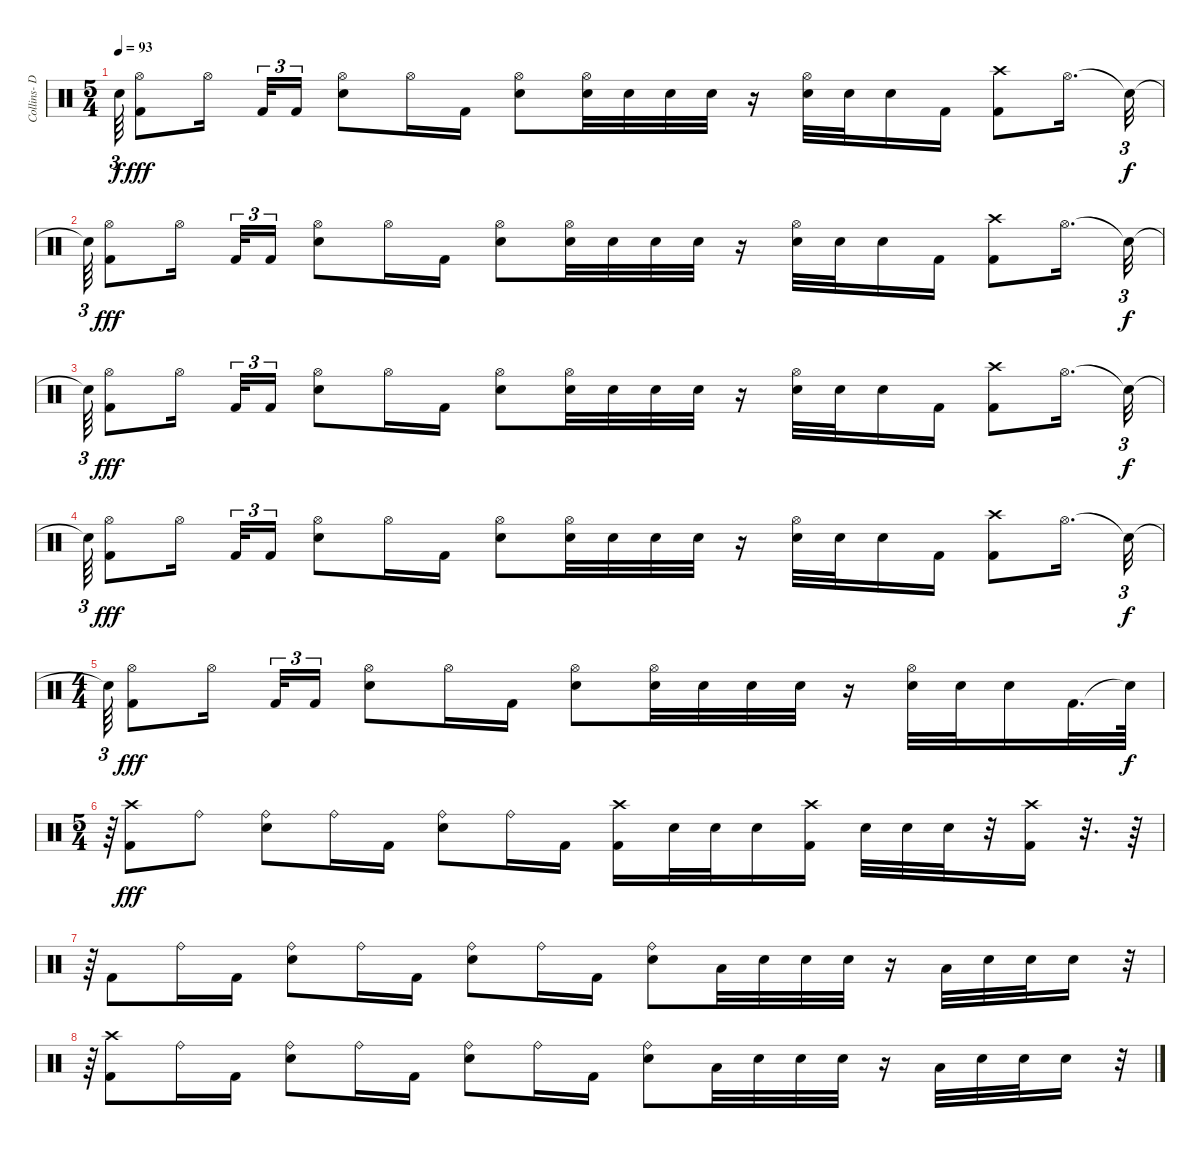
\track ("Collins- Drums" "Collins- D") {instrument percussion}
\staff {score}
\articulation defaults
\ts (5 4)
\tempo 93
\clef neutral
\ks c "Snare (hit)"{t}.64{tu (3 2) dy f}
("Hi-Hat (open)" "Kick (hit) 2").8{dy fff} "Hi-Hat (open)".16{beam splitsecondary} "Kick (hit) 2".32{tu (3 2)} "Kick (hit) 2".16{tu (3 2)} ("Electric Snare (hit)" "Hi-Hat (open)").8 "Hi-Hat (open)".16 "Kick (hit) 2".16 ("Electric Snare (hit)" "Hi-Hat (open)").8 ("Hi-Hat (open)" "Electric Snare (hit)").32 "Electric Snare (hit)".32 "Electric Snare (hit)".32 "Electric Snare (hit)".32 r.16 ("Hi-Hat (open)" "Electric Snare (hit)").32 "Electric Snare (hit)".32 "Electric Snare (hit)".16 "Kick (hit) 2".16 ("Kick (hit) 2" "Crash high (hit)").8 "Hi-Hat (open)".16{d} "Snare (hit)"{t}.32{tu (3 2) dy f} |
"Snare (hit)"{t}.64{tu (3 2)} ("Hi-Hat (open)" "Kick (hit) 2").8{dy fff} "Hi-Hat (open)".16{beam splitsecondary} "Kick (hit) 2".32{tu (3 2)} "Kick (hit) 2".16{tu (3 2)} ("Electric Snare (hit)" "Hi-Hat (open)").8 "Hi-Hat (open)".16 "Kick (hit) 2".16 ("Electric Snare (hit)" "Hi-Hat (open)").8 ("Hi-Hat (open)" "Electric Snare (hit)").32 "Electric Snare (hit)".32 "Electric Snare (hit)".32 "Electric Snare (hit)".32 r.16 ("Hi-Hat (open)" "Electric Snare (hit)").32 "Electric Snare (hit)".32 "Electric Snare (hit)".16 "Kick (hit) 2".16 ("Kick (hit) 2" "Crash high (hit)").8 "Hi-Hat (open)".16{d} "Snare (hit)"{t}.32{tu (3 2) dy f} |
"Snare (hit)"{t}.64{tu (3 2)} ("Hi-Hat (open)" "Kick (hit) 2").8{dy fff} "Hi-Hat (open)".16{beam splitsecondary} "Kick (hit) 2".32{tu (3 2)} "Kick (hit) 2".16{tu (3 2)} ("Electric Snare (hit)" "Hi-Hat (open)").8 "Hi-Hat (open)".16 "Kick (hit) 2".16 ("Electric Snare (hit)" "Hi-Hat (open)").8 ("Hi-Hat (open)" "Electric Snare (hit)").32 "Electric Snare (hit)".32 "Electric Snare (hit)".32 "Electric Snare (hit)".32 r.16 ("Hi-Hat (open)" "Electric Snare (hit)").32 "Electric Snare (hit)".32 "Electric Snare (hit)".16 "Kick (hit) 2".16 ("Kick (hit) 2" "Crash high (hit)").8 "Hi-Hat (open)".16{d} "Snare (hit)"{t}.32{tu (3 2) dy f} |
"Snare (hit)"{t}.64{tu (3 2)} ("Hi-Hat (open)" "Kick (hit) 2").8{dy fff} "Hi-Hat (open)".16{beam splitsecondary} "Kick (hit) 2".32{tu (3 2)} "Kick (hit) 2".16{tu (3 2)} ("Electric Snare (hit)" "Hi-Hat (open)").8 "Hi-Hat (open)".16 "Kick (hit) 2".16 ("Electric Snare (hit)" "Hi-Hat (open)").8 ("Hi-Hat (open)" "Electric Snare (hit)").32 "Electric Snare (hit)".32 "Electric Snare (hit)".32 "Electric Snare (hit)".32 r.16 ("Hi-Hat (open)" "Electric Snare (hit)").32 "Electric Snare (hit)".32 "Electric Snare (hit)".16 "Kick (hit) 2".16 ("Kick (hit) 2" "Crash high (hit)").8 "Hi-Hat (open)".16{d} "Snare (hit)"{t}.32{tu (3 2) dy f} |
\ts (4 4)
"Snare (hit)"{t}.64{tu (3 2)} ("Hi-Hat (open)" "Kick (hit) 2").8{dy fff} "Hi-Hat (open)".16{beam splitsecondary} "Kick (hit) 2".32{tu (3 2)} "Kick (hit) 2".16{tu (3 2)} ("Electric Snare (hit)" "Hi-Hat (open)").8 "Hi-Hat (open)".16 "Kick (hit) 2".16 ("Electric Snare (hit)" "Hi-Hat (open)").8 ("Hi-Hat (open)" "Electric Snare (hit)").32 "Electric Snare (hit)".32 "Electric Snare (hit)".32 "Electric Snare (hit)".32 r.16 ("Hi-Hat (open)" "Electric Snare (hit)").32 "Electric Snare (hit)".32 "Electric Snare (hit)".16 "Kick (hit) 2".32{d} "Snare (hit)"{t}.64{dy f} |
\ts (5 4)
r.64{tu (3 2)} ("Kick (hit) 2" "Crash high (hit)").8{dy fff} "Ride (bell)".8 ("Electric Snare (hit)" "Ride (bell)").8 "Ride (bell)".16 "Kick (hit) 2".16 ("Electric Snare (hit)" "Ride (bell)").8 "Ride (bell)".16 "Kick (hit) 2".16 ("Kick (hit) 2" "Crash high (hit)").16 "Electric Snare (hit)".32 "Electric Snare (hit)".32 "Electric Snare (hit)".16 ("Kick (hit) 2" "Crash high (hit)").16 "Electric Snare (hit)".32 "Electric Snare (hit)".32 "Electric Snare (hit)".32 r.32 ("Kick (hit) 2" "Crash high (hit)").16 r.32{d} r.64 |
r.64{tu (3 2)} "Kick (hit) 2".8 "Ride (bell)".16 "Kick (hit) 2".16 ("Electric Snare (hit)" "Ride (bell)").8 "Ride (bell)".16 "Kick (hit) 2".16 ("Electric Snare (hit)" "Ride (bell)").8 "Ride (bell)".16 "Kick (hit) 2".16 ("Ride (bell)" "Electric Snare (hit)").8 "Low Tom (hit)".32 "Electric Snare (hit)".32 "Electric Snare (hit)".32 "Electric Snare (hit)".32 r.16 "Low Tom (hit)".32 "Electric Snare (hit)".32 "Electric Snare (hit)".32 "Electric Snare (hit)".16 r.32{tu (3 2)} |
r.64{tu (3 2)} ("Crash high (hit)" "Kick (hit) 2").8 "Ride (bell)".16 "Kick (hit) 2".16 ("Electric Snare (hit)" "Ride (bell)").8 "Ride (bell)".16 "Kick (hit) 2".16 ("Electric Snare (hit)" "Ride (bell)").8 "Ride (bell)".16 "Kick (hit) 2".16 ("Ride (bell)" "Electric Snare (hit)").8 "Low Tom (hit)".32 "Electric Snare (hit)".32 "Electric Snare (hit)".32 "Electric Snare (hit)".32 r.16 "Low Tom (hit)".32 "Electric Snare (hit)".32 "Electric Snare (hit)".32 "Electric Snare (hit)".16 r.32{tu (3 2)}
